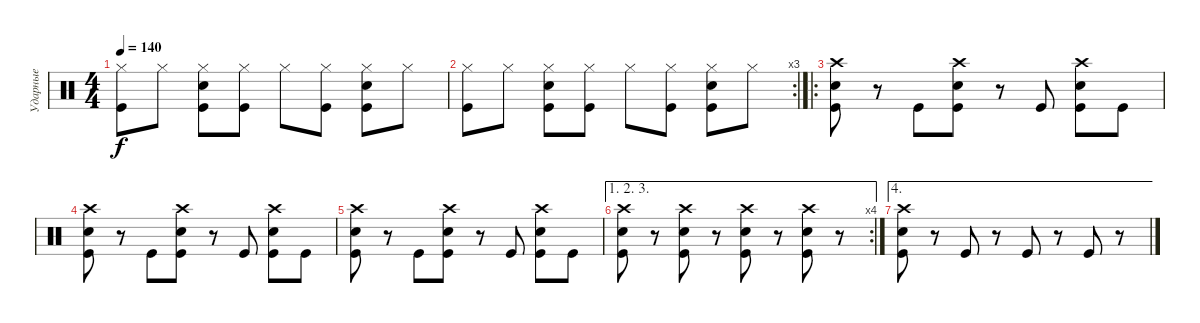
\track ("Ударные" "Ударные") {instrument percussion}
\staff {score}
\articulation defaults
\ts (4 4)
\tempo 140
\clef neutral
\ks c
("Hi-Hat (closed)" "Kick (hit)").8{dy f} "Hi-Hat (closed)".8 ("Hi-Hat (closed)" "Snare (hit) 2" "Kick (hit)").8 ("Hi-Hat (closed)" "Kick (hit)").8 "Hi-Hat (closed)".8 ("Hi-Hat (closed)" "Kick (hit)").8 ("Hi-Hat (closed)" "Snare (hit) 2" "Kick (hit)").8 "Hi-Hat (closed)".8 |
\rc 3
("Hi-Hat (closed)" "Kick (hit)").8 "Hi-Hat (closed)".8 ("Hi-Hat (closed)" "Snare (hit) 2" "Kick (hit)").8 ("Hi-Hat (closed)" "Kick (hit)").8 "Hi-Hat (closed)".8 ("Hi-Hat (closed)" "Kick (hit)").8 ("Hi-Hat (closed)" "Snare (hit) 2" "Kick (hit)").8 "Hi-Hat (closed)".8 |
\ro
("Crash high (hit)" "Snare (hit) 2" "Kick (hit)").8 r.8 "Kick (hit)".8 ("Crash high (hit)" "Snare (hit) 2" "Kick (hit)").8 r.8 "Kick (hit)".8 ("Crash high (hit)" "Snare (hit) 2" "Kick (hit)").8 "Kick (hit)".8 |
("Crash high (hit)" "Snare (hit) 2" "Kick (hit)").8 r.8 "Kick (hit)".8 ("Crash high (hit)" "Snare (hit) 2" "Kick (hit)").8 r.8 "Kick (hit)".8 ("Crash high (hit)" "Snare (hit) 2" "Kick (hit)").8 "Kick (hit)".8 |
("Crash high (hit)" "Snare (hit) 2" "Kick (hit)").8 r.8 "Kick (hit)".8 ("Crash high (hit)" "Snare (hit) 2" "Kick (hit)").8 r.8 "Kick (hit)".8 ("Crash high (hit)" "Snare (hit) 2" "Kick (hit)").8 "Kick (hit)".8 |
\ae (1 2 3)
\rc 4
("Crash high (hit)" "Snare (hit) 2" "Kick (hit)").8 r.8 ("Crash high (hit)" "Snare (hit) 2" "Kick (hit)").8 r.8 ("Crash high (hit)" "Snare (hit) 2" "Kick (hit)").8 r.8 ("Crash high (hit)" "Snare (hit) 2" "Kick (hit)").8 r.8 |
\ae 4
("Crash high (hit)" "Snare (hit) 2" "Kick (hit)").8 r.8 "Kick (hit)".8 r.8 "Kick (hit)".8 r.8 "Kick (hit)".8 r.8
